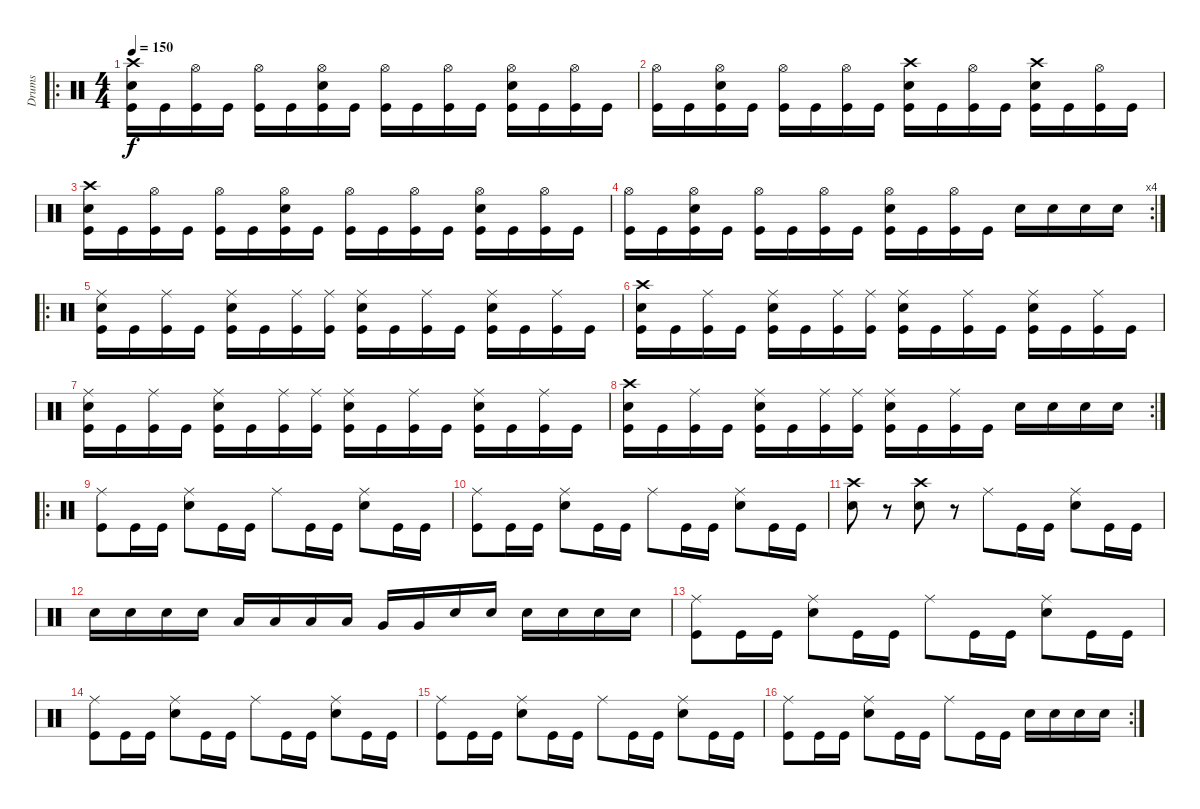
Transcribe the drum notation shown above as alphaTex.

\track ("Drums" "Drums") {instrument percussion}
\staff {score}
\articulation defaults
\ro
\ts (4 4)
\tempo 150
\clef neutral
\ks c
("Crash high (hit)" "Snare (hit) 2" "Kick (hit)").16{dy f} "Kick (hit)".16 ("Hi-Hat (open)" "Kick (hit)").16 "Kick (hit)".16 ("Hi-Hat (open)" "Kick (hit)").16 "Kick (hit)".16 ("Hi-Hat (open)" "Snare (hit) 2" "Kick (hit)").16 "Kick (hit)".16 ("Hi-Hat (open)" "Kick (hit)").16 "Kick (hit)".16 ("Hi-Hat (open)" "Kick (hit)").16 "Kick (hit)".16 ("Hi-Hat (open)" "Snare (hit) 2" "Kick (hit)").16 "Kick (hit)".16 ("Hi-Hat (open)" "Kick (hit)").16 "Kick (hit)".16 |
("Hi-Hat (open)" "Kick (hit)").16 "Kick (hit)".16 ("Hi-Hat (open)" "Snare (hit) 2" "Kick (hit)").16 "Kick (hit)".16 ("Hi-Hat (open)" "Kick (hit)").16 "Kick (hit)".16 ("Hi-Hat (open)" "Kick (hit)").16 "Kick (hit)".16 ("Crash high (hit)" "Snare (hit) 2" "Kick (hit)").16 "Kick (hit)".16 ("Hi-Hat (open)" "Kick (hit)").16 "Kick (hit)".16 ("Crash high (hit)" "Snare (hit) 2" "Kick (hit)").16 "Kick (hit)".16 ("Hi-Hat (open)" "Kick (hit)").16 "Kick (hit)".16 |
("Crash high (hit)" "Snare (hit) 2" "Kick (hit)").16 "Kick (hit)".16 ("Hi-Hat (open)" "Kick (hit)").16 "Kick (hit)".16 ("Hi-Hat (open)" "Kick (hit)").16 "Kick (hit)".16 ("Hi-Hat (open)" "Snare (hit) 2" "Kick (hit)").16 "Kick (hit)".16 ("Hi-Hat (open)" "Kick (hit)").16 "Kick (hit)".16 ("Hi-Hat (open)" "Kick (hit)").16 "Kick (hit)".16 ("Hi-Hat (open)" "Snare (hit) 2" "Kick (hit)").16 "Kick (hit)".16 ("Hi-Hat (open)" "Kick (hit)").16 "Kick (hit)".16 |
\rc 4
("Hi-Hat (open)" "Kick (hit)").16 "Kick (hit)".16 ("Hi-Hat (open)" "Snare (hit) 2" "Kick (hit)").16 "Kick (hit)".16 ("Hi-Hat (open)" "Kick (hit)").16 "Kick (hit)".16 ("Hi-Hat (open)" "Kick (hit)").16 "Kick (hit)".16 ("Hi-Hat (open)" "Snare (hit) 2" "Kick (hit)").16 "Kick (hit)".16 ("Hi-Hat (open)" "Kick (hit)").16 "Kick (hit)".16 "Snare (hit) 2".16 "Snare (hit) 2".16 "Snare (hit) 2".16 "Snare (hit) 2".16 |
\ro
("Ride (middle)" "Snare (hit) 2" "Kick (hit)").16 "Kick (hit)".16 ("Ride (middle)" "Kick (hit)").16 "Kick (hit)".16 ("Ride (middle)" "Snare (hit) 2" "Kick (hit)").16 "Kick (hit)".16 ("Ride (middle)" "Kick (hit)").16 ("Ride (middle)" "Kick (hit)").16 ("Ride (middle)" "Snare (hit) 2" "Kick (hit)").16 "Kick (hit)".16 ("Ride (middle)" "Kick (hit)").16 "Kick (hit)".16 ("Ride (middle)" "Snare (hit) 2" "Kick (hit)").16 "Kick (hit)".16 ("Ride (middle)" "Kick (hit)").16 "Kick (hit)".16 |
("Crash high (hit)" "Snare (hit) 2" "Kick (hit)").16 "Kick (hit)".16 ("Ride (middle)" "Kick (hit)").16 "Kick (hit)".16 ("Ride (middle)" "Snare (hit) 2" "Kick (hit)").16 "Kick (hit)".16 ("Ride (middle)" "Kick (hit)").16 ("Ride (middle)" "Kick (hit)").16 ("Ride (middle)" "Snare (hit) 2" "Kick (hit)").16 "Kick (hit)".16 ("Ride (middle)" "Kick (hit)").16 "Kick (hit)".16 ("Ride (middle)" "Snare (hit) 2" "Kick (hit)").16 "Kick (hit)".16 ("Ride (middle)" "Kick (hit)").16 "Kick (hit)".16 |
("Ride (middle)" "Snare (hit) 2" "Kick (hit)").16 "Kick (hit)".16 ("Ride (middle)" "Kick (hit)").16 "Kick (hit)".16 ("Ride (middle)" "Snare (hit) 2" "Kick (hit)").16 "Kick (hit)".16 ("Ride (middle)" "Kick (hit)").16 ("Ride (middle)" "Kick (hit)").16 ("Ride (middle)" "Snare (hit) 2" "Kick (hit)").16 "Kick (hit)".16 ("Ride (middle)" "Kick (hit)").16 "Kick (hit)".16 ("Ride (middle)" "Snare (hit) 2" "Kick (hit)").16 "Kick (hit)".16 ("Ride (middle)" "Kick (hit)").16 "Kick (hit)".16 |
\rc 2
("Crash high (hit)" "Snare (hit) 2" "Kick (hit)").16 "Kick (hit)".16 ("Ride (middle)" "Kick (hit)").16 "Kick (hit)".16 ("Ride (middle)" "Snare (hit) 2" "Kick (hit)").16 "Kick (hit)".16 ("Ride (middle)" "Kick (hit)").16 ("Ride (middle)" "Kick (hit)").16 ("Ride (middle)" "Snare (hit) 2" "Kick (hit)").16 "Kick (hit)".16 ("Ride (middle)" "Kick (hit)").16 "Kick (hit)".16 "Snare (hit) 2".16 "Snare (hit) 2".16 "Snare (hit) 2".16 "Snare (hit) 2".16 |
\ro
("Ride (middle)" "Kick (hit)").8 "Kick (hit)".16 "Kick (hit)".16 ("Ride (middle)" "Snare (hit) 2").8 "Kick (hit)".16 "Kick (hit)".16 "Ride (middle)".8 "Kick (hit)".16 "Kick (hit)".16 ("Ride (middle)" "Snare (hit) 2").8 "Kick (hit)".16 "Kick (hit)".16 |
("Ride (middle)" "Kick (hit)").8 "Kick (hit)".16 "Kick (hit)".16 ("Ride (middle)" "Snare (hit) 2").8 "Kick (hit)".16 "Kick (hit)".16 "Ride (middle)".8 "Kick (hit)".16 "Kick (hit)".16 ("Ride (middle)" "Snare (hit) 2").8 "Kick (hit)".16 "Kick (hit)".16 |
("Crash high (hit)" "Snare (hit) 2").8 r.8 ("Crash high (hit)" "Snare (hit) 2").8 r.8 "Ride (middle)".8 "Kick (hit)".16 "Kick (hit)".16 ("Ride (middle)" "Snare (hit) 2").8 "Kick (hit)".16 "Kick (hit)".16 |
"Snare (hit) 2".16 "Snare (hit) 2".16 "Snare (hit) 2".16 "Snare (hit) 2".16 "Low Floor Tom (hit)".16 "Low Floor Tom (hit)".16 "Low Floor Tom (hit)".16 "Low Floor Tom (hit)".16 "Very Low Tom (hit)".16 "Very Low Tom (hit)".16 "Snare (hit) 2".16 "Snare (hit) 2".16 "Snare (hit) 2".16 "Snare (hit) 2".16 "Snare (hit) 2".16 "Snare (hit) 2".16 |
("Ride (middle)" "Kick (hit)").8 "Kick (hit)".16 "Kick (hit)".16 ("Ride (middle)" "Snare (hit) 2").8 "Kick (hit)".16 "Kick (hit)".16 "Ride (middle)".8 "Kick (hit)".16 "Kick (hit)".16 ("Ride (middle)" "Snare (hit) 2").8 "Kick (hit)".16 "Kick (hit)".16 |
("Ride (middle)" "Kick (hit)").8 "Kick (hit)".16 "Kick (hit)".16 ("Ride (middle)" "Snare (hit) 2").8 "Kick (hit)".16 "Kick (hit)".16 "Ride (middle)".8 "Kick (hit)".16 "Kick (hit)".16 ("Ride (middle)" "Snare (hit) 2").8 "Kick (hit)".16 "Kick (hit)".16 |
("Ride (middle)" "Kick (hit)").8 "Kick (hit)".16 "Kick (hit)".16 ("Ride (middle)" "Snare (hit) 2").8 "Kick (hit)".16 "Kick (hit)".16 "Ride (middle)".8 "Kick (hit)".16 "Kick (hit)".16 ("Ride (middle)" "Snare (hit) 2").8 "Kick (hit)".16 "Kick (hit)".16 |
\rc 2
("Ride (middle)" "Kick (hit)").8 "Kick (hit)".16 "Kick (hit)".16 ("Ride (middle)" "Snare (hit) 2").8 "Kick (hit)".16 "Kick (hit)".16 "Ride (middle)".8 "Kick (hit)".16 "Kick (hit)".16 "Snare (hit) 2".16 "Snare (hit) 2".16 "Snare (hit) 2".16 "Snare (hit) 2".16
